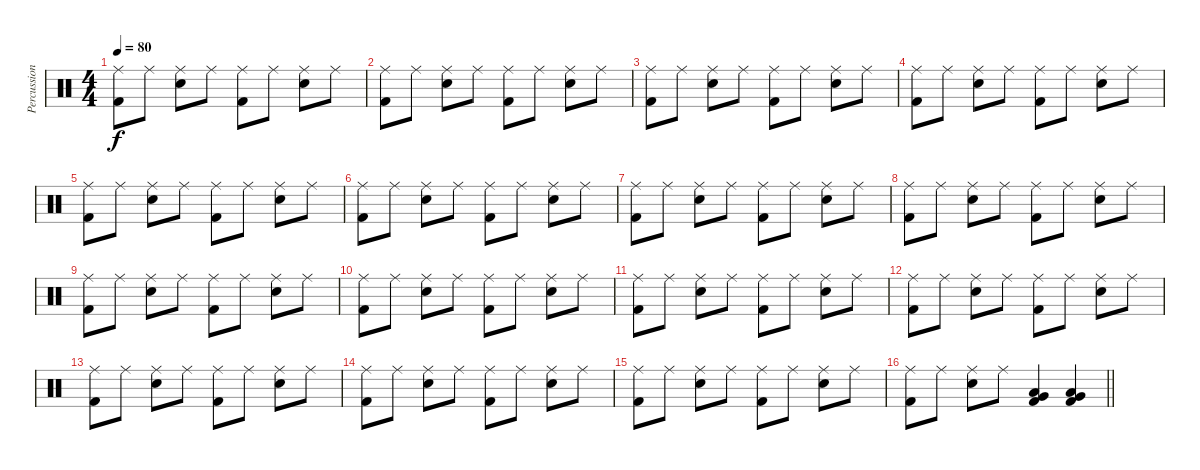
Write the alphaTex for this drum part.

\track ("Percussion" "Percussion") {instrument percussion}
\staff {score}
\articulation defaults
\ts (4 4)
\tempo 80
\clef neutral
\ks c
("Ride (middle)" "Kick (hit) 2").8{dy f} "Ride (middle)".8 ("Ride (middle)" "Electric Snare (hit)").8 "Ride (middle)".8 ("Ride (middle)" "Kick (hit) 2").8 "Ride (middle)".8 ("Ride (middle)" "Electric Snare (hit)").8 "Ride (middle)".8 |
("Ride (middle)" "Kick (hit) 2").8 "Ride (middle)".8 ("Ride (middle)" "Electric Snare (hit)").8 "Ride (middle)".8 ("Ride (middle)" "Kick (hit) 2").8 "Ride (middle)".8 ("Ride (middle)" "Electric Snare (hit)").8 "Ride (middle)".8 |
("Ride (middle)" "Kick (hit) 2").8 "Ride (middle)".8 ("Ride (middle)" "Electric Snare (hit)").8 "Ride (middle)".8 ("Ride (middle)" "Kick (hit) 2").8 "Ride (middle)".8 ("Ride (middle)" "Electric Snare (hit)").8 "Ride (middle)".8 |
("Ride (middle)" "Kick (hit) 2").8 "Ride (middle)".8 ("Ride (middle)" "Electric Snare (hit)").8 "Ride (middle)".8 ("Ride (middle)" "Kick (hit) 2").8 "Ride (middle)".8 ("Ride (middle)" "Electric Snare (hit)").8 "Ride (middle)".8 |
("Ride (middle)" "Kick (hit) 2").8 "Ride (middle)".8 ("Ride (middle)" "Electric Snare (hit)").8 "Ride (middle)".8 ("Ride (middle)" "Kick (hit) 2").8 "Ride (middle)".8 ("Ride (middle)" "Electric Snare (hit)").8 "Ride (middle)".8 |
("Ride (middle)" "Kick (hit) 2").8 "Ride (middle)".8 ("Ride (middle)" "Electric Snare (hit)").8 "Ride (middle)".8 ("Ride (middle)" "Kick (hit) 2").8 "Ride (middle)".8 ("Ride (middle)" "Electric Snare (hit)").8 "Ride (middle)".8 |
("Ride (middle)" "Kick (hit) 2").8 "Ride (middle)".8 ("Ride (middle)" "Electric Snare (hit)").8 "Ride (middle)".8 ("Ride (middle)" "Kick (hit) 2").8 "Ride (middle)".8 ("Ride (middle)" "Electric Snare (hit)").8 "Ride (middle)".8 |
("Ride (middle)" "Kick (hit) 2").8 "Ride (middle)".8 ("Ride (middle)" "Electric Snare (hit)").8 "Ride (middle)".8 ("Ride (middle)" "Kick (hit) 2").8 "Ride (middle)".8 ("Ride (middle)" "Electric Snare (hit)").8 "Ride (middle)".8 |
("Ride (middle)" "Kick (hit) 2").8 "Ride (middle)".8 ("Ride (middle)" "Electric Snare (hit)").8 "Ride (middle)".8 ("Ride (middle)" "Kick (hit) 2").8 "Ride (middle)".8 ("Ride (middle)" "Electric Snare (hit)").8 "Ride (middle)".8 |
("Ride (middle)" "Kick (hit) 2").8 "Ride (middle)".8 ("Ride (middle)" "Electric Snare (hit)").8 "Ride (middle)".8 ("Ride (middle)" "Kick (hit) 2").8 "Ride (middle)".8 ("Ride (middle)" "Electric Snare (hit)").8 "Ride (middle)".8 |
("Ride (middle)" "Kick (hit) 2").8 "Ride (middle)".8 ("Ride (middle)" "Electric Snare (hit)").8 "Ride (middle)".8 ("Ride (middle)" "Kick (hit) 2").8 "Ride (middle)".8 ("Ride (middle)" "Electric Snare (hit)").8 "Ride (middle)".8 |
("Ride (middle)" "Kick (hit) 2").8 "Ride (middle)".8 ("Ride (middle)" "Electric Snare (hit)").8 "Ride (middle)".8 ("Ride (middle)" "Kick (hit) 2").8 "Ride (middle)".8 ("Ride (middle)" "Electric Snare (hit)").8 "Ride (middle)".8 |
("Ride (middle)" "Kick (hit) 2").8 "Ride (middle)".8 ("Ride (middle)" "Electric Snare (hit)").8 "Ride (middle)".8 ("Ride (middle)" "Kick (hit) 2").8 "Ride (middle)".8 ("Ride (middle)" "Electric Snare (hit)").8 "Ride (middle)".8 |
("Ride (middle)" "Kick (hit) 2").8 "Ride (middle)".8 ("Ride (middle)" "Electric Snare (hit)").8 "Ride (middle)".8 ("Ride (middle)" "Kick (hit) 2").8 "Ride (middle)".8 ("Ride (middle)" "Electric Snare (hit)").8 "Ride (middle)".8 |
("Ride (middle)" "Kick (hit) 2").8 "Ride (middle)".8 ("Ride (middle)" "Electric Snare (hit)").8 "Ride (middle)".8 ("Ride (middle)" "Kick (hit) 2").8 "Ride (middle)".8 ("Ride (middle)" "Electric Snare (hit)").8 "Ride (middle)".8 |
\barLineRight lightlight
("Ride (middle)" "Kick (hit) 2").8 "Ride (middle)".8 ("Ride (middle)" "Electric Snare (hit)").8 "Ride (middle)".8 ("Very Low Tom (hit)" "Low Tom (hit)" "Kick (hit) 2").4 ("Low Floor Tom (hit)" "Very Low Tom (hit)" "Kick (hit) 2").4
